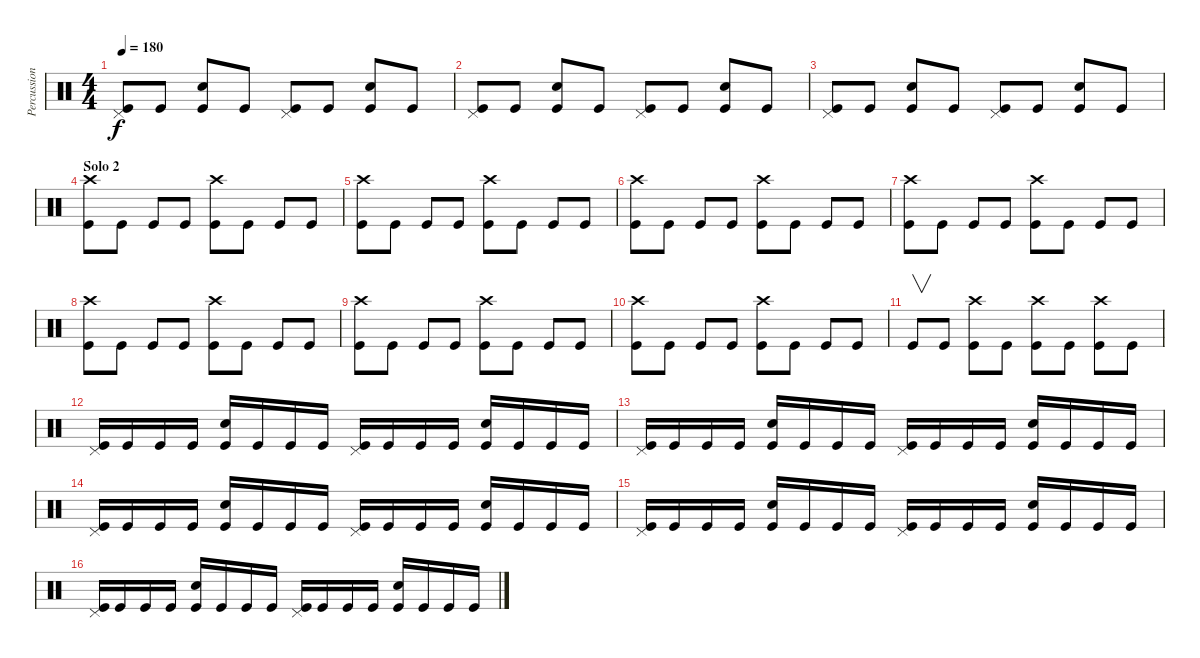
\track ("Percussion" "Percussion") {instrument percussion}
\staff {score}
\articulation defaults
\ts (4 4)
\tempo 180
\clef neutral
\ks c
("Pedal Hi-Hat (hit)" "Kick (hit)").8{dy f} "Kick (hit)".8 ("Electric Snare (hit)" "Kick (hit)").8 "Kick (hit)".8 ("Pedal Hi-Hat (hit)" "Kick (hit)").8 "Kick (hit)".8 ("Electric Snare (hit)" "Kick (hit)").8 "Kick (hit)".8 |
("Pedal Hi-Hat (hit)" "Kick (hit)").8 "Kick (hit)".8 ("Electric Snare (hit)" "Kick (hit)").8 "Kick (hit)".8 ("Pedal Hi-Hat (hit)" "Kick (hit)").8 "Kick (hit)".8 ("Electric Snare (hit)" "Kick (hit)").8 "Kick (hit)".8 |
("Pedal Hi-Hat (hit)" "Kick (hit)").8 "Kick (hit)".8 ("Electric Snare (hit)" "Kick (hit)").8 "Kick (hit)".8 ("Pedal Hi-Hat (hit)" "Kick (hit)").8 "Kick (hit)".8 ("Electric Snare (hit)" "Kick (hit)").8 "Kick (hit)".8 |
\section ("" "Solo 2")
("Crash high (hit)" "Kick (hit)").8 "Kick (hit)".8 "Kick (hit)".8 "Kick (hit)".8 ("Crash high (hit)" "Kick (hit)").8 "Kick (hit)".8 "Kick (hit)".8 "Kick (hit)".8 |
("Crash high (hit)" "Kick (hit)").8 "Kick (hit)".8 "Kick (hit)".8 "Kick (hit)".8 ("Crash high (hit)" "Kick (hit)").8 "Kick (hit)".8 "Kick (hit)".8 "Kick (hit)".8 |
("Crash high (hit)" "Kick (hit)").8 "Kick (hit)".8 "Kick (hit)".8 "Kick (hit)".8 ("Crash high (hit)" "Kick (hit)").8 "Kick (hit)".8 "Kick (hit)".8 "Kick (hit)".8 |
("Crash high (hit)" "Kick (hit)").8 "Kick (hit)".8 "Kick (hit)".8 "Kick (hit)".8 ("Crash high (hit)" "Kick (hit)").8 "Kick (hit)".8 "Kick (hit)".8 "Kick (hit)".8 |
("Crash high (hit)" "Kick (hit)").8 "Kick (hit)".8 "Kick (hit)".8 "Kick (hit)".8 ("Crash high (hit)" "Kick (hit)").8 "Kick (hit)".8 "Kick (hit)".8 "Kick (hit)".8 |
("Crash high (hit)" "Kick (hit)").8 "Kick (hit)".8 "Kick (hit)".8 "Kick (hit)".8 ("Crash high (hit)" "Kick (hit)").8 "Kick (hit)".8 "Kick (hit)".8 "Kick (hit)".8 |
("Crash high (hit)" "Kick (hit)").8 "Kick (hit)".8 "Kick (hit)".8 "Kick (hit)".8 ("Crash high (hit)" "Kick (hit)").8 "Kick (hit)".8 "Kick (hit)".8 "Kick (hit)".8 |
"Kick (hit)".8{v} "Kick (hit)".8 ("Crash high (hit)" "Kick (hit)").8 "Kick (hit)".8 ("Crash high (hit)" "Kick (hit)").8 "Kick (hit)".8 ("Crash high (hit)" "Kick (hit)").8 "Kick (hit)".8 |
("Pedal Hi-Hat (hit)" "Kick (hit)").16 "Kick (hit)".16 "Kick (hit)".16 "Kick (hit)".16 ("Electric Snare (hit)" "Kick (hit)").16 "Kick (hit)".16 "Kick (hit)".16 "Kick (hit)".16 ("Pedal Hi-Hat (hit)" "Kick (hit)").16 "Kick (hit)".16 "Kick (hit)".16 "Kick (hit)".16 ("Electric Snare (hit)" "Kick (hit)").16 "Kick (hit)".16 "Kick (hit)".16 "Kick (hit)".16 |
("Pedal Hi-Hat (hit)" "Kick (hit)").16 "Kick (hit)".16 "Kick (hit)".16 "Kick (hit)".16 ("Electric Snare (hit)" "Kick (hit)").16 "Kick (hit)".16 "Kick (hit)".16 "Kick (hit)".16 ("Pedal Hi-Hat (hit)" "Kick (hit)").16 "Kick (hit)".16 "Kick (hit)".16 "Kick (hit)".16 ("Electric Snare (hit)" "Kick (hit)").16 "Kick (hit)".16 "Kick (hit)".16 "Kick (hit)".16 |
("Pedal Hi-Hat (hit)" "Kick (hit)").16 "Kick (hit)".16 "Kick (hit)".16 "Kick (hit)".16 ("Electric Snare (hit)" "Kick (hit)").16 "Kick (hit)".16 "Kick (hit)".16 "Kick (hit)".16 ("Pedal Hi-Hat (hit)" "Kick (hit)").16 "Kick (hit)".16 "Kick (hit)".16 "Kick (hit)".16 ("Electric Snare (hit)" "Kick (hit)").16 "Kick (hit)".16 "Kick (hit)".16 "Kick (hit)".16 |
("Pedal Hi-Hat (hit)" "Kick (hit)").16 "Kick (hit)".16 "Kick (hit)".16 "Kick (hit)".16 ("Electric Snare (hit)" "Kick (hit)").16 "Kick (hit)".16 "Kick (hit)".16 "Kick (hit)".16 ("Pedal Hi-Hat (hit)" "Kick (hit)").16 "Kick (hit)".16 "Kick (hit)".16 "Kick (hit)".16 ("Electric Snare (hit)" "Kick (hit)").16 "Kick (hit)".16 "Kick (hit)".16 "Kick (hit)".16 |
("Pedal Hi-Hat (hit)" "Kick (hit)").16 "Kick (hit)".16 "Kick (hit)".16 "Kick (hit)".16 ("Electric Snare (hit)" "Kick (hit)").16 "Kick (hit)".16 "Kick (hit)".16 "Kick (hit)".16 ("Pedal Hi-Hat (hit)" "Kick (hit)").16 "Kick (hit)".16 "Kick (hit)".16 "Kick (hit)".16 ("Electric Snare (hit)" "Kick (hit)").16 "Kick (hit)".16 "Kick (hit)".16 "Kick (hit)".16
